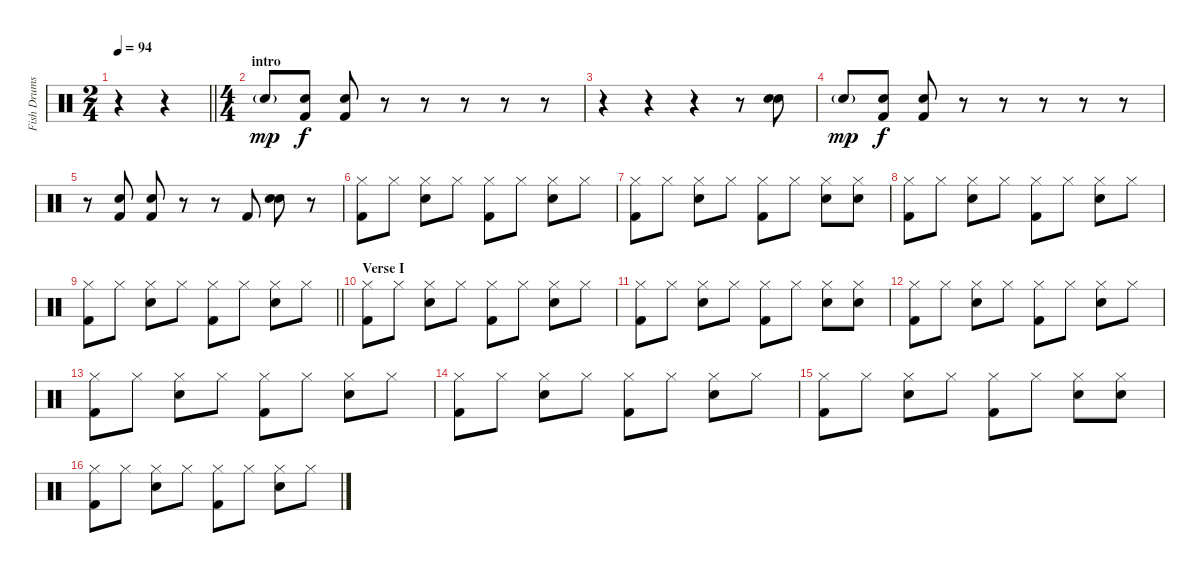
\track ("Fish Drums" "Fish Drums") {instrument percussion}
\staff {score}
\articulation defaults
\ts (2 4)
\tempo 94
\clef neutral
\barLineRight lightlight
\ks c
r.4{dy mp} r.4 |
\ts (4 4)
\section ("" "intro")
"Electric Snare (hit)"{g}.8 ("Snare (hit) 2" "Kick (hit) 2").8{dy f} ("Snare (hit) 2" "Kick (hit) 2").8 r.8 r.8 r.8 r.8 r.8 |
r.4 r.4 r.4 r.8 ("Snare (hit) 2" "Electric Snare (hit)").8 |
"Electric Snare (hit)"{g}.8{dy mp} ("Snare (hit) 2" "Kick (hit) 2").8{dy f} ("Snare (hit) 2" "Kick (hit) 2").8 r.8 r.8 r.8 r.8 r.8 |
r.8 ("Snare (hit) 2" "Kick (hit) 2").8 ("Snare (hit) 2" "Kick (hit) 2").8 r.8 r.8 "Kick (hit) 2".8 ("Electric Snare (hit)" "Snare (hit) 2").8 r.8 |
("Hi-Hat (closed)" "Kick (hit) 2").8 "Hi-Hat (closed)".8 ("Hi-Hat (closed)" "Snare (hit) 2").8 "Hi-Hat (closed)".8 ("Hi-Hat (closed)" "Kick (hit) 2").8 "Hi-Hat (closed)".8 ("Hi-Hat (closed)" "Snare (hit) 2").8 "Hi-Hat (closed)".8 |
("Hi-Hat (closed)" "Kick (hit) 2").8 "Hi-Hat (closed)".8 ("Hi-Hat (closed)" "Snare (hit) 2").8 "Hi-Hat (closed)".8 ("Hi-Hat (closed)" "Kick (hit) 2").8 "Hi-Hat (closed)".8 ("Hi-Hat (closed)" "Snare (hit) 2").8 ("Hi-Hat (closed)" "Snare (hit) 2").8 |
("Hi-Hat (closed)" "Kick (hit) 2").8 "Hi-Hat (closed)".8 ("Hi-Hat (closed)" "Snare (hit) 2").8 "Hi-Hat (closed)".8 ("Hi-Hat (closed)" "Kick (hit) 2").8 "Hi-Hat (closed)".8 ("Hi-Hat (closed)" "Snare (hit) 2").8 "Hi-Hat (closed)".8 |
\barLineRight lightlight
("Hi-Hat (closed)" "Kick (hit) 2").8 "Hi-Hat (closed)".8 ("Hi-Hat (closed)" "Snare (hit) 2").8 "Hi-Hat (closed)".8 ("Hi-Hat (closed)" "Kick (hit) 2").8 "Hi-Hat (closed)".8 ("Hi-Hat (closed)" "Snare (hit) 2").8 "Hi-Hat (closed)".8 |
\section ("" "Verse I")
("Hi-Hat (closed)" "Kick (hit) 2").8 "Hi-Hat (closed)".8 ("Hi-Hat (closed)" "Snare (hit) 2").8 "Hi-Hat (closed)".8 ("Hi-Hat (closed)" "Kick (hit) 2").8 "Hi-Hat (closed)".8 ("Hi-Hat (closed)" "Snare (hit) 2").8 "Hi-Hat (closed)".8 |
("Hi-Hat (closed)" "Kick (hit) 2").8 "Hi-Hat (closed)".8 ("Hi-Hat (closed)" "Snare (hit) 2").8 "Hi-Hat (closed)".8 ("Hi-Hat (closed)" "Kick (hit) 2").8 "Hi-Hat (closed)".8 ("Hi-Hat (closed)" "Snare (hit) 2").8 ("Hi-Hat (closed)" "Snare (hit) 2").8 |
("Hi-Hat (closed)" "Kick (hit) 2").8 "Hi-Hat (closed)".8 ("Hi-Hat (closed)" "Snare (hit) 2").8 "Hi-Hat (closed)".8 ("Hi-Hat (closed)" "Kick (hit) 2").8 "Hi-Hat (closed)".8 ("Hi-Hat (closed)" "Snare (hit) 2").8 "Hi-Hat (closed)".8 |
("Hi-Hat (closed)" "Kick (hit) 2").8 "Hi-Hat (closed)".8 ("Hi-Hat (closed)" "Snare (hit) 2").8 "Hi-Hat (closed)".8 ("Hi-Hat (closed)" "Kick (hit) 2").8 "Hi-Hat (closed)".8 ("Hi-Hat (closed)" "Snare (hit) 2").8 "Hi-Hat (closed)".8 |
("Hi-Hat (closed)" "Kick (hit) 2").8 "Hi-Hat (closed)".8 ("Hi-Hat (closed)" "Snare (hit) 2").8 "Hi-Hat (closed)".8 ("Hi-Hat (closed)" "Kick (hit) 2").8 "Hi-Hat (closed)".8 ("Hi-Hat (closed)" "Snare (hit) 2").8 "Hi-Hat (closed)".8 |
("Hi-Hat (closed)" "Kick (hit) 2").8 "Hi-Hat (closed)".8 ("Hi-Hat (closed)" "Snare (hit) 2").8 "Hi-Hat (closed)".8 ("Hi-Hat (closed)" "Kick (hit) 2").8 "Hi-Hat (closed)".8 ("Hi-Hat (closed)" "Snare (hit) 2").8 ("Hi-Hat (closed)" "Snare (hit) 2").8 |
("Hi-Hat (closed)" "Kick (hit) 2").8 "Hi-Hat (closed)".8 ("Hi-Hat (closed)" "Snare (hit) 2").8 "Hi-Hat (closed)".8 ("Hi-Hat (closed)" "Kick (hit) 2").8 "Hi-Hat (closed)".8 ("Hi-Hat (closed)" "Snare (hit) 2").8 "Hi-Hat (closed)".8
